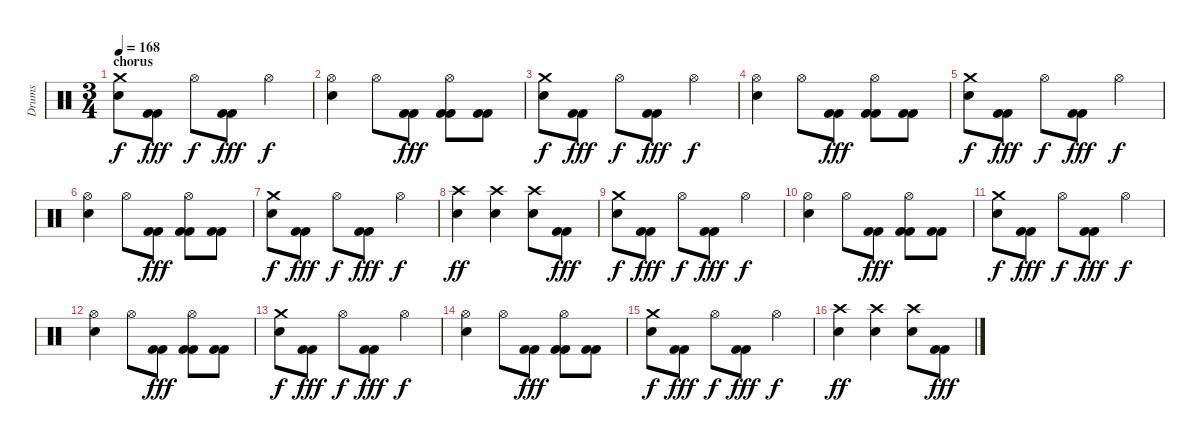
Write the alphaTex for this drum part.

\track ("Drums" "Drums") {instrument percussion}
\staff {score}
\articulation defaults
\ts (3 4)
\section ("" "chorus")
\tempo 168
\clef neutral
\ks c
("Crash medium (hit)" "Electric Snare (hit)").8{dy f} ("Kick (hit) 2" "Kick (hit) 2").8{dy fff} "Hi-Hat (open)".8{dy f} ("Kick (hit) 2" "Kick (hit) 2").8{dy fff} "Hi-Hat (open)".4{dy f} |
("Electric Snare (hit)" "Hi-Hat (open)").4 "Hi-Hat (open)".8 ("Kick (hit) 2" "Kick (hit) 2").8{dy fff} ("Hi-Hat (open)" "Kick (hit) 2" "Kick (hit) 2").8 ("Kick (hit) 2" "Kick (hit) 2").8 |
("Crash medium (hit)" "Electric Snare (hit)").8{dy f} ("Kick (hit) 2" "Kick (hit) 2").8{dy fff} "Hi-Hat (open)".8{dy f} ("Kick (hit) 2" "Kick (hit) 2").8{dy fff} "Hi-Hat (open)".4{dy f} |
("Electric Snare (hit)" "Hi-Hat (open)").4 "Hi-Hat (open)".8 ("Kick (hit) 2" "Kick (hit) 2").8{dy fff} ("Hi-Hat (open)" "Kick (hit) 2" "Kick (hit) 2").8 ("Kick (hit) 2" "Kick (hit) 2").8 |
("Crash medium (hit)" "Electric Snare (hit)").8{dy f} ("Kick (hit) 2" "Kick (hit) 2").8{dy fff} "Hi-Hat (open)".8{dy f} ("Kick (hit) 2" "Kick (hit) 2").8{dy fff} "Hi-Hat (open)".4{dy f} |
("Electric Snare (hit)" "Hi-Hat (open)").4 "Hi-Hat (open)".8 ("Kick (hit) 2" "Kick (hit) 2").8{dy fff} ("Hi-Hat (open)" "Kick (hit) 2" "Kick (hit) 2").8 ("Kick (hit) 2" "Kick (hit) 2").8 |
("Crash medium (hit)" "Electric Snare (hit)").8{dy f} ("Kick (hit) 2" "Kick (hit) 2").8{dy fff} "Hi-Hat (open)".8{dy f} ("Kick (hit) 2" "Kick (hit) 2").8{dy fff} "Hi-Hat (open)".4{dy f} |
("Electric Snare (hit)" "Crash high (hit)").4{dy ff} ("Electric Snare (hit)" "Crash high (hit)").4 ("Electric Snare (hit)" "Crash high (hit)").8 ("Kick (hit) 2" "Kick (hit) 2").8{dy fff} |
("Crash medium (hit)" "Electric Snare (hit)").8{dy f} ("Kick (hit) 2" "Kick (hit) 2").8{dy fff} "Hi-Hat (open)".8{dy f} ("Kick (hit) 2" "Kick (hit) 2").8{dy fff} "Hi-Hat (open)".4{dy f} |
("Electric Snare (hit)" "Hi-Hat (open)").4 "Hi-Hat (open)".8 ("Kick (hit) 2" "Kick (hit) 2").8{dy fff} ("Hi-Hat (open)" "Kick (hit) 2" "Kick (hit) 2").8 ("Kick (hit) 2" "Kick (hit) 2").8 |
("Crash medium (hit)" "Electric Snare (hit)").8{dy f} ("Kick (hit) 2" "Kick (hit) 2").8{dy fff} "Hi-Hat (open)".8{dy f} ("Kick (hit) 2" "Kick (hit) 2").8{dy fff} "Hi-Hat (open)".4{dy f} |
("Electric Snare (hit)" "Hi-Hat (open)").4 "Hi-Hat (open)".8 ("Kick (hit) 2" "Kick (hit) 2").8{dy fff} ("Hi-Hat (open)" "Kick (hit) 2" "Kick (hit) 2").8 ("Kick (hit) 2" "Kick (hit) 2").8 |
("Crash medium (hit)" "Electric Snare (hit)").8{dy f} ("Kick (hit) 2" "Kick (hit) 2").8{dy fff} "Hi-Hat (open)".8{dy f} ("Kick (hit) 2" "Kick (hit) 2").8{dy fff} "Hi-Hat (open)".4{dy f} |
("Electric Snare (hit)" "Hi-Hat (open)").4 "Hi-Hat (open)".8 ("Kick (hit) 2" "Kick (hit) 2").8{dy fff} ("Hi-Hat (open)" "Kick (hit) 2" "Kick (hit) 2").8 ("Kick (hit) 2" "Kick (hit) 2").8 |
("Crash medium (hit)" "Electric Snare (hit)").8{dy f} ("Kick (hit) 2" "Kick (hit) 2").8{dy fff} "Hi-Hat (open)".8{dy f} ("Kick (hit) 2" "Kick (hit) 2").8{dy fff} "Hi-Hat (open)".4{dy f} |
("Electric Snare (hit)" "Crash high (hit)").4{dy ff} ("Electric Snare (hit)" "Crash high (hit)").4 ("Electric Snare (hit)" "Crash high (hit)").8 ("Kick (hit) 2" "Kick (hit) 2").8{dy fff}
